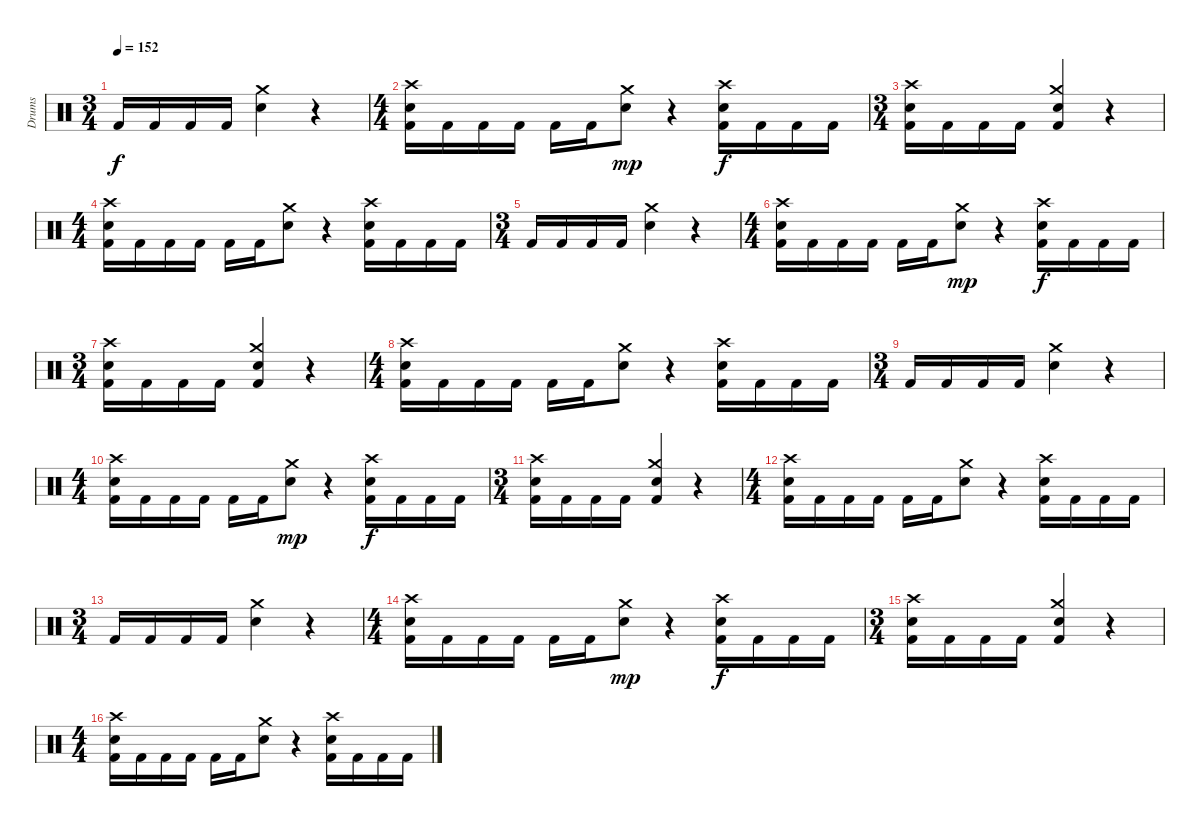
\track ("Drums" "Drums") {instrument percussion}
\staff {score}
\articulation defaults
\ts (3 4)
\tempo 152
\clef neutral
\ks c "Kick (hit) 2".16{dy f} "Kick (hit) 2".16 "Kick (hit) 2".16 "Kick (hit) 2".16
("Crash medium (hit)" "Snare (hit) 2").4 r.4 |
\ts (4 4)
("Crash high (hit)" "Snare (hit) 2" "Kick (hit) 2").16 "Kick (hit) 2".16 "Kick (hit) 2".16 "Kick (hit) 2".16 "Kick (hit) 2".16 "Kick (hit) 2".16 ("Crash medium (hit)" "Snare (hit) 2").8{dy mp} r.4 ("Crash high (hit)" "Snare (hit) 2" "Kick (hit) 2").16{dy f} "Kick (hit) 2".16 "Kick (hit) 2".16 "Kick (hit) 2".16 |
\ts (3 4)
("Crash high (hit)" "Snare (hit) 2" "Kick (hit) 2").16 "Kick (hit) 2".16 "Kick (hit) 2".16 "Kick (hit) 2".16 ("Crash medium (hit)" "Snare (hit) 2" "Kick (hit) 2").4 r.4 |
\ts (4 4)
("Crash high (hit)" "Snare (hit) 2" "Kick (hit) 2").16 "Kick (hit) 2".16 "Kick (hit) 2".16 "Kick (hit) 2".16 "Kick (hit) 2".16 "Kick (hit) 2".16 ("Crash medium (hit)" "Snare (hit) 2").8 r.4 ("Crash high (hit)" "Snare (hit) 2" "Kick (hit) 2").16 "Kick (hit) 2".16 "Kick (hit) 2".16 "Kick (hit) 2".16 |
\ts (3 4)
"Kick (hit) 2".16 "Kick (hit) 2".16 "Kick (hit) 2".16 "Kick (hit) 2".16 ("Crash medium (hit)" "Snare (hit) 2").4 r.4 |
\ts (4 4)
("Crash high (hit)" "Snare (hit) 2" "Kick (hit) 2").16 "Kick (hit) 2".16 "Kick (hit) 2".16 "Kick (hit) 2".16 "Kick (hit) 2".16 "Kick (hit) 2".16 ("Crash medium (hit)" "Snare (hit) 2").8{dy mp} r.4 ("Crash high (hit)" "Snare (hit) 2" "Kick (hit) 2").16{dy f} "Kick (hit) 2".16 "Kick (hit) 2".16 "Kick (hit) 2".16 |
\ts (3 4)
("Crash high (hit)" "Snare (hit) 2" "Kick (hit) 2").16 "Kick (hit) 2".16 "Kick (hit) 2".16 "Kick (hit) 2".16 ("Crash medium (hit)" "Snare (hit) 2" "Kick (hit) 2").4 r.4 |
\ts (4 4)
("Crash high (hit)" "Snare (hit) 2" "Kick (hit) 2").16 "Kick (hit) 2".16 "Kick (hit) 2".16 "Kick (hit) 2".16 "Kick (hit) 2".16 "Kick (hit) 2".16 ("Crash medium (hit)" "Snare (hit) 2").8 r.4 ("Crash high (hit)" "Snare (hit) 2" "Kick (hit) 2").16 "Kick (hit) 2".16 "Kick (hit) 2".16 "Kick (hit) 2".16 |
\ts (3 4)
"Kick (hit) 2".16 "Kick (hit) 2".16 "Kick (hit) 2".16 "Kick (hit) 2".16 ("Crash medium (hit)" "Snare (hit) 2").4 r.4 |
\ts (4 4)
("Crash high (hit)" "Snare (hit) 2" "Kick (hit) 2").16 "Kick (hit) 2".16 "Kick (hit) 2".16 "Kick (hit) 2".16 "Kick (hit) 2".16 "Kick (hit) 2".16 ("Crash medium (hit)" "Snare (hit) 2").8{dy mp} r.4 ("Crash high (hit)" "Snare (hit) 2" "Kick (hit) 2").16{dy f} "Kick (hit) 2".16 "Kick (hit) 2".16 "Kick (hit) 2".16 |
\ts (3 4)
("Crash high (hit)" "Snare (hit) 2" "Kick (hit) 2").16 "Kick (hit) 2".16 "Kick (hit) 2".16 "Kick (hit) 2".16 ("Crash medium (hit)" "Snare (hit) 2" "Kick (hit) 2").4 r.4 |
\ts (4 4)
("Crash high (hit)" "Snare (hit) 2" "Kick (hit) 2").16 "Kick (hit) 2".16 "Kick (hit) 2".16 "Kick (hit) 2".16 "Kick (hit) 2".16 "Kick (hit) 2".16 ("Crash medium (hit)" "Snare (hit) 2").8 r.4 ("Crash high (hit)" "Snare (hit) 2" "Kick (hit) 2").16 "Kick (hit) 2".16 "Kick (hit) 2".16 "Kick (hit) 2".16 |
\ts (3 4)
"Kick (hit) 2".16 "Kick (hit) 2".16 "Kick (hit) 2".16 "Kick (hit) 2".16 ("Crash medium (hit)" "Snare (hit) 2").4 r.4 |
\ts (4 4)
("Crash high (hit)" "Snare (hit) 2" "Kick (hit) 2").16 "Kick (hit) 2".16 "Kick (hit) 2".16 "Kick (hit) 2".16 "Kick (hit) 2".16 "Kick (hit) 2".16 ("Crash medium (hit)" "Snare (hit) 2").8{dy mp} r.4 ("Crash high (hit)" "Snare (hit) 2" "Kick (hit) 2").16{dy f} "Kick (hit) 2".16 "Kick (hit) 2".16 "Kick (hit) 2".16 |
\ts (3 4)
("Crash high (hit)" "Snare (hit) 2" "Kick (hit) 2").16 "Kick (hit) 2".16 "Kick (hit) 2".16 "Kick (hit) 2".16 ("Crash medium (hit)" "Snare (hit) 2" "Kick (hit) 2").4 r.4 |
\ts (4 4)
("Crash high (hit)" "Snare (hit) 2" "Kick (hit) 2").16 "Kick (hit) 2".16 "Kick (hit) 2".16 "Kick (hit) 2".16 "Kick (hit) 2".16 "Kick (hit) 2".16 ("Crash medium (hit)" "Snare (hit) 2").8 r.4 ("Crash high (hit)" "Snare (hit) 2" "Kick (hit) 2").16 "Kick (hit) 2".16 "Kick (hit) 2".16 "Kick (hit) 2".16
